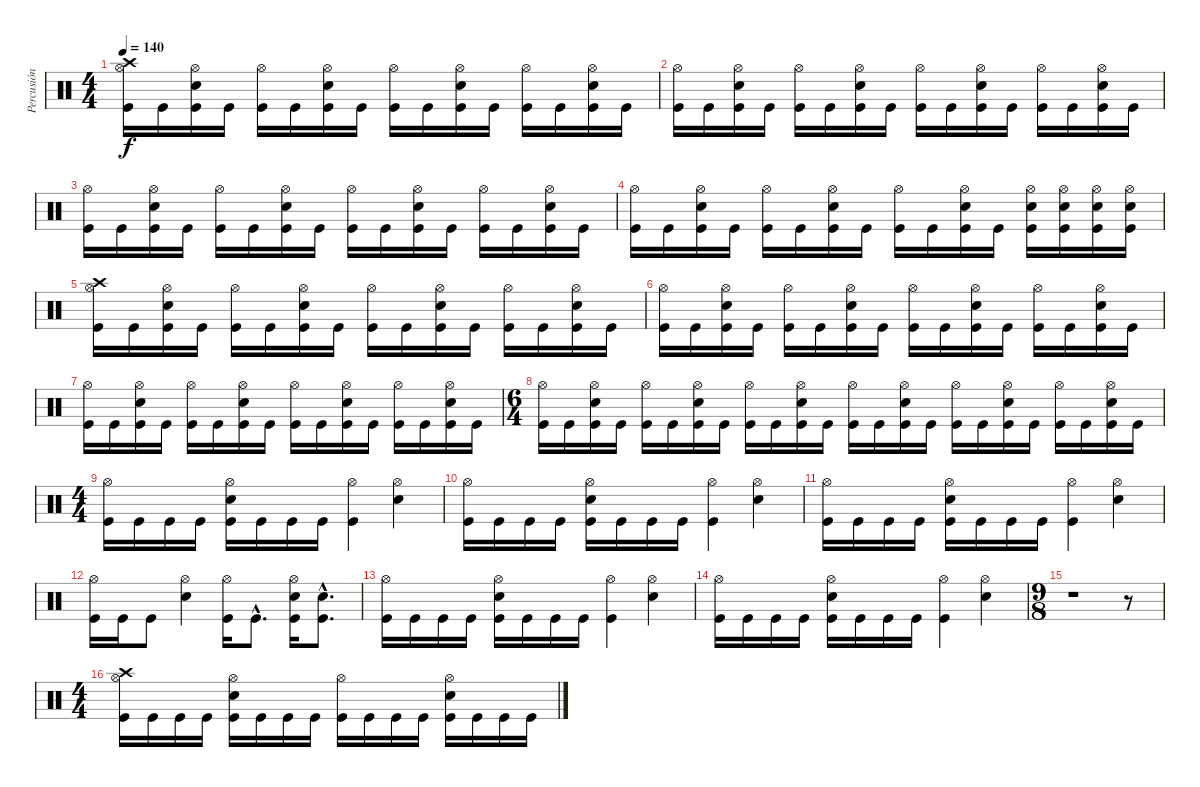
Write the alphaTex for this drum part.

\track ("Percusión" "Percusión") {instrument percussion}
\staff {score}
\articulation defaults
\ts (4 4)
\tempo 140
\clef neutral
\ks c
("Crash high (hit)" "Hi-Hat (open)" "Kick (hit)").16{dy f} "Kick (hit)".16 ("Snare (hit) 2" "Hi-Hat (open)" "Kick (hit)").16 "Kick (hit)".16 ("Hi-Hat (open)" "Kick (hit)").16 "Kick (hit)".16 ("Snare (hit) 2" "Hi-Hat (open)" "Kick (hit)").16 "Kick (hit)".16 ("Hi-Hat (open)" "Kick (hit)").16 "Kick (hit)".16 ("Snare (hit) 2" "Hi-Hat (open)" "Kick (hit)").16 "Kick (hit)".16 ("Hi-Hat (open)" "Kick (hit)").16 "Kick (hit)".16 ("Snare (hit) 2" "Hi-Hat (open)" "Kick (hit)").16 "Kick (hit)".16 |
("Hi-Hat (open)" "Kick (hit)").16 "Kick (hit)".16 ("Snare (hit) 2" "Hi-Hat (open)" "Kick (hit)").16 "Kick (hit)".16 ("Hi-Hat (open)" "Kick (hit)").16 "Kick (hit)".16 ("Snare (hit) 2" "Hi-Hat (open)" "Kick (hit)").16 "Kick (hit)".16 ("Hi-Hat (open)" "Kick (hit)").16 "Kick (hit)".16 ("Snare (hit) 2" "Hi-Hat (open)" "Kick (hit)").16 "Kick (hit)".16 ("Hi-Hat (open)" "Kick (hit)").16 "Kick (hit)".16 ("Snare (hit) 2" "Hi-Hat (open)" "Kick (hit)").16 "Kick (hit)".16 |
("Hi-Hat (open)" "Kick (hit)").16 "Kick (hit)".16 ("Snare (hit) 2" "Hi-Hat (open)" "Kick (hit)").16 "Kick (hit)".16 ("Hi-Hat (open)" "Kick (hit)").16 "Kick (hit)".16 ("Snare (hit) 2" "Hi-Hat (open)" "Kick (hit)").16 "Kick (hit)".16 ("Hi-Hat (open)" "Kick (hit)").16 "Kick (hit)".16 ("Snare (hit) 2" "Hi-Hat (open)" "Kick (hit)").16 "Kick (hit)".16 ("Hi-Hat (open)" "Kick (hit)").16 "Kick (hit)".16 ("Snare (hit) 2" "Hi-Hat (open)" "Kick (hit)").16 "Kick (hit)".16 |
("Hi-Hat (open)" "Kick (hit)").16 "Kick (hit)".16 ("Snare (hit) 2" "Hi-Hat (open)" "Kick (hit)").16 "Kick (hit)".16 ("Hi-Hat (open)" "Kick (hit)").16 "Kick (hit)".16 ("Snare (hit) 2" "Hi-Hat (open)" "Kick (hit)").16 "Kick (hit)".16 ("Hi-Hat (open)" "Kick (hit)").16 "Kick (hit)".16 ("Snare (hit) 2" "Hi-Hat (open)" "Kick (hit)").16 "Kick (hit)".16 ("Snare (hit) 2" "Hi-Hat (open)" "Kick (hit)").16 ("Snare (hit) 2" "Hi-Hat (open)" "Kick (hit)").16 ("Snare (hit) 2" "Hi-Hat (open)" "Kick (hit)").16 ("Snare (hit) 2" "Hi-Hat (open)" "Kick (hit)").16 |
("Crash high (hit)" "Hi-Hat (open)" "Kick (hit)").16 "Kick (hit)".16 ("Snare (hit) 2" "Hi-Hat (open)" "Kick (hit)").16 "Kick (hit)".16 ("Hi-Hat (open)" "Kick (hit)").16 "Kick (hit)".16 ("Snare (hit) 2" "Hi-Hat (open)" "Kick (hit)").16 "Kick (hit)".16 ("Hi-Hat (open)" "Kick (hit)").16 "Kick (hit)".16 ("Snare (hit) 2" "Hi-Hat (open)" "Kick (hit)").16 "Kick (hit)".16 ("Hi-Hat (open)" "Kick (hit)").16 "Kick (hit)".16 ("Snare (hit) 2" "Hi-Hat (open)" "Kick (hit)").16 "Kick (hit)".16 |
("Hi-Hat (open)" "Kick (hit)").16 "Kick (hit)".16 ("Snare (hit) 2" "Hi-Hat (open)" "Kick (hit)").16 "Kick (hit)".16 ("Hi-Hat (open)" "Kick (hit)").16 "Kick (hit)".16 ("Snare (hit) 2" "Hi-Hat (open)" "Kick (hit)").16 "Kick (hit)".16 ("Hi-Hat (open)" "Kick (hit)").16 "Kick (hit)".16 ("Snare (hit) 2" "Hi-Hat (open)" "Kick (hit)").16 "Kick (hit)".16 ("Hi-Hat (open)" "Kick (hit)").16 "Kick (hit)".16 ("Snare (hit) 2" "Hi-Hat (open)" "Kick (hit)").16 "Kick (hit)".16 |
("Hi-Hat (open)" "Kick (hit)").16 "Kick (hit)".16 ("Snare (hit) 2" "Hi-Hat (open)" "Kick (hit)").16 "Kick (hit)".16 ("Hi-Hat (open)" "Kick (hit)").16 "Kick (hit)".16 ("Snare (hit) 2" "Hi-Hat (open)" "Kick (hit)").16 "Kick (hit)".16 ("Hi-Hat (open)" "Kick (hit)").16 "Kick (hit)".16 ("Snare (hit) 2" "Hi-Hat (open)" "Kick (hit)").16 "Kick (hit)".16 ("Hi-Hat (open)" "Kick (hit)").16 "Kick (hit)".16 ("Snare (hit) 2" "Hi-Hat (open)" "Kick (hit)").16 "Kick (hit)".16 |
\ts (6 4)
("Hi-Hat (open)" "Kick (hit)").16 "Kick (hit)".16 ("Snare (hit) 2" "Hi-Hat (open)" "Kick (hit)").16 "Kick (hit)".16 ("Hi-Hat (open)" "Kick (hit)").16 "Kick (hit)".16 ("Snare (hit) 2" "Hi-Hat (open)" "Kick (hit)").16 "Kick (hit)".16 ("Hi-Hat (open)" "Kick (hit)").16 "Kick (hit)".16 ("Snare (hit) 2" "Hi-Hat (open)" "Kick (hit)").16 "Kick (hit)".16 ("Hi-Hat (open)" "Kick (hit)").16 "Kick (hit)".16 ("Snare (hit) 2" "Hi-Hat (open)" "Kick (hit)").16 "Kick (hit)".16 ("Hi-Hat (open)" "Kick (hit)").16 "Kick (hit)".16 ("Snare (hit) 2" "Hi-Hat (open)" "Kick (hit)").16 "Kick (hit)".16 ("Hi-Hat (open)" "Kick (hit)").16 "Kick (hit)".16 ("Snare (hit) 2" "Hi-Hat (open)" "Kick (hit)").16 "Kick (hit)".16 |
\ts (4 4)
("Hi-Hat (open)" "Kick (hit)").16 "Kick (hit)".16 "Kick (hit)".16 "Kick (hit)".16 ("Snare (hit) 2" "Hi-Hat (open)" "Kick (hit)").16 "Kick (hit)".16 "Kick (hit)".16 "Kick (hit)".16 ("Hi-Hat (open)" "Kick (hit)").4 ("Snare (hit) 2" "Hi-Hat (open)").4 |
("Hi-Hat (open)" "Kick (hit)").16 "Kick (hit)".16 "Kick (hit)".16 "Kick (hit)".16 ("Snare (hit) 2" "Hi-Hat (open)" "Kick (hit)").16 "Kick (hit)".16 "Kick (hit)".16 "Kick (hit)".16 ("Hi-Hat (open)" "Kick (hit)").4 ("Snare (hit) 2" "Hi-Hat (open)").4 |
("Hi-Hat (open)" "Kick (hit)").16 "Kick (hit)".16 "Kick (hit)".16 "Kick (hit)".16 ("Snare (hit) 2" "Hi-Hat (open)" "Kick (hit)").16 "Kick (hit)".16 "Kick (hit)".16 "Kick (hit)".16 ("Hi-Hat (open)" "Kick (hit)").4 ("Snare (hit) 2" "Hi-Hat (open)").4 |
("Hi-Hat (open)" "Kick (hit)").16 "Kick (hit)".16 "Kick (hit)".8 ("Snare (hit) 2" "Hi-Hat (open)").4 ("Hi-Hat (open)" "Kick (hit)").16 "Kick (hit)"{hac}.8{d} ("Snare (hit) 2" "Hi-Hat (open)" "Kick (hit)").16 ("Snare (hit) 2"{hac} "Kick (hit)"{hac}).8{d} |
("Hi-Hat (open)" "Kick (hit)").16 "Kick (hit)".16 "Kick (hit)".16 "Kick (hit)".16 ("Snare (hit) 2" "Hi-Hat (open)" "Kick (hit)").16 "Kick (hit)".16 "Kick (hit)".16 "Kick (hit)".16 ("Hi-Hat (open)" "Kick (hit)").4 ("Snare (hit) 2" "Hi-Hat (open)").4 |
("Hi-Hat (open)" "Kick (hit)").16 "Kick (hit)".16 "Kick (hit)".16 "Kick (hit)".16 ("Snare (hit) 2" "Hi-Hat (open)" "Kick (hit)").16 "Kick (hit)".16 "Kick (hit)".16 "Kick (hit)".16 ("Hi-Hat (open)" "Kick (hit)").4 ("Snare (hit) 2" "Hi-Hat (open)").4 |
\ts (9 8)
r.1 r.8 |
\ts (4 4)
("Crash high (hit)" "Hi-Hat (open)" "Kick (hit)").16 "Kick (hit)".16 "Kick (hit)".16 "Kick (hit)".16 ("Snare (hit) 2" "Hi-Hat (open)" "Kick (hit)").16 "Kick (hit)".16 "Kick (hit)".16 "Kick (hit)".16 ("Hi-Hat (open)" "Kick (hit)").16 "Kick (hit)".16 "Kick (hit)".16 "Kick (hit)".16 ("Snare (hit) 2" "Hi-Hat (open)" "Kick (hit)").16 "Kick (hit)".16 "Kick (hit)".16 "Kick (hit)".16
